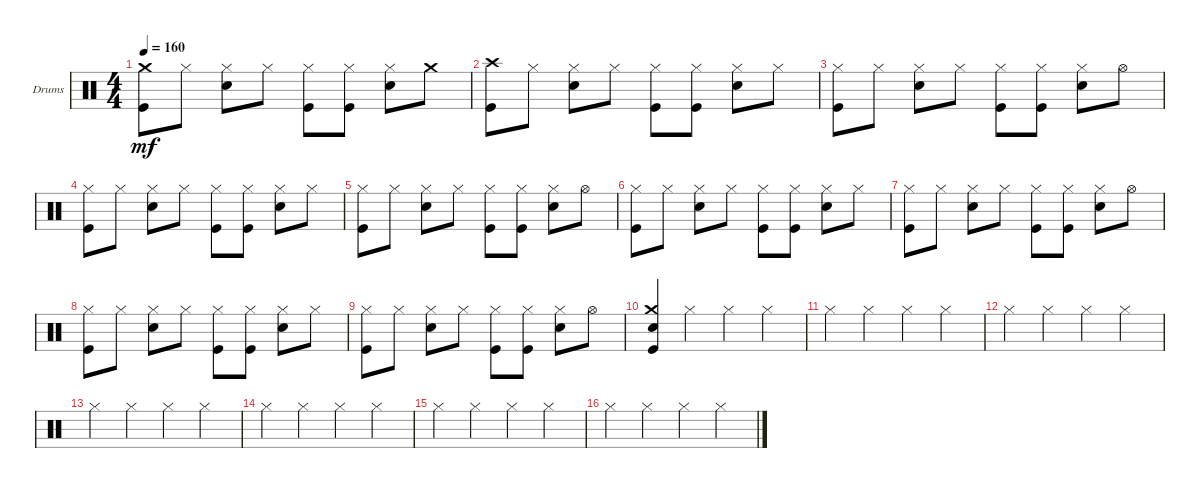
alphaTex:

\defaultSystemsLayout 4
\bracketExtendMode groupsimilarinstruments
\firstSystemTrackNameOrientation horizontal
\otherSystemsTrackNameOrientation horizontal
\track ("Drumkit" "Drums") {instrument percussion}
\staff {score}
\articulation defaults
\ts (4 4)
\tempo 160
\clef neutral
\ks c
("Kick (hit)" "Crash medium (hit)").8{dy mf} "Hi-Hat (closed)".8 ("Snare (hit) 2" "Hi-Hat (closed)").8 "Hi-Hat (closed)".8 ("Hi-Hat (closed)" "Kick (hit)").8 ("Kick (hit)" "Hi-Hat (closed)").8 ("Snare (hit) 2" "Hi-Hat (closed)").8 "Crash medium (hit)".8 |
("Kick (hit)" "Crash high (hit)").8 "Hi-Hat (closed)".8 ("Snare (hit) 2" "Hi-Hat (closed)").8 "Hi-Hat (closed)".8 ("Hi-Hat (closed)" "Kick (hit)").8 ("Kick (hit)" "Hi-Hat (closed)").8 ("Snare (hit) 2" "Hi-Hat (closed)").8 "Hi-Hat (closed)".8 |
("Kick (hit)" "Hi-Hat (closed)").8 "Hi-Hat (closed)".8 ("Snare (hit) 2" "Hi-Hat (closed)").8 "Hi-Hat (closed)".8 ("Hi-Hat (closed)" "Kick (hit)").8 ("Kick (hit)" "Hi-Hat (closed)").8 ("Snare (hit) 2" "Hi-Hat (closed)").8 "Hi-Hat (open)".8 |
("Kick (hit)" "Hi-Hat (closed)").8 "Hi-Hat (closed)".8 ("Snare (hit) 2" "Hi-Hat (closed)").8 "Hi-Hat (closed)".8 ("Hi-Hat (closed)" "Kick (hit)").8 ("Kick (hit)" "Hi-Hat (closed)").8 ("Snare (hit) 2" "Hi-Hat (closed)").8 "Hi-Hat (closed)".8 |
("Kick (hit)" "Hi-Hat (closed)").8 "Hi-Hat (closed)".8 ("Snare (hit) 2" "Hi-Hat (closed)").8 "Hi-Hat (closed)".8 ("Hi-Hat (closed)" "Kick (hit)").8 ("Kick (hit)" "Hi-Hat (closed)").8 ("Snare (hit) 2" "Hi-Hat (closed)").8 "Hi-Hat (open)".8 |
("Kick (hit)" "Hi-Hat (closed)").8 "Hi-Hat (closed)".8 ("Snare (hit) 2" "Hi-Hat (closed)").8 "Hi-Hat (closed)".8 ("Hi-Hat (closed)" "Kick (hit)").8 ("Kick (hit)" "Hi-Hat (closed)").8 ("Snare (hit) 2" "Hi-Hat (closed)").8 "Hi-Hat (closed)".8 |
("Kick (hit)" "Hi-Hat (closed)").8 "Hi-Hat (closed)".8 ("Snare (hit) 2" "Hi-Hat (closed)").8 "Hi-Hat (closed)".8 ("Hi-Hat (closed)" "Kick (hit)").8 ("Kick (hit)" "Hi-Hat (closed)").8 ("Snare (hit) 2" "Hi-Hat (closed)").8 "Hi-Hat (open)".8 |
("Kick (hit)" "Hi-Hat (closed)").8 "Hi-Hat (closed)".8 ("Snare (hit) 2" "Hi-Hat (closed)").8 "Hi-Hat (closed)".8 ("Hi-Hat (closed)" "Kick (hit)").8 ("Kick (hit)" "Hi-Hat (closed)").8 ("Snare (hit) 2" "Hi-Hat (closed)").8 "Hi-Hat (closed)".8 |
("Kick (hit)" "Hi-Hat (closed)").8 "Hi-Hat (closed)".8 ("Snare (hit) 2" "Hi-Hat (closed)").8 "Hi-Hat (closed)".8 ("Hi-Hat (closed)" "Kick (hit)").8 ("Kick (hit)" "Hi-Hat (closed)").8 ("Snare (hit) 2" "Hi-Hat (closed)").8 "Hi-Hat (open)".8 |
("Crash medium (hit)" "Kick (hit)" "Snare (hit) 2").4 "Hi-Hat (closed)".4 "Hi-Hat (closed)".4 "Hi-Hat (closed)".4 |
"Hi-Hat (closed)".4 "Hi-Hat (closed)".4 "Hi-Hat (closed)".4 "Hi-Hat (closed)".4 |
"Hi-Hat (closed)".4 "Hi-Hat (closed)".4 "Hi-Hat (closed)".4 "Hi-Hat (closed)".4 |
"Hi-Hat (closed)".4 "Hi-Hat (closed)".4 "Hi-Hat (closed)".4 "Hi-Hat (closed)".4 |
"Hi-Hat (closed)".4 "Hi-Hat (closed)".4 "Hi-Hat (closed)".4 "Hi-Hat (closed)".4 |
"Hi-Hat (closed)".4 "Hi-Hat (closed)".4 "Hi-Hat (closed)".4 "Hi-Hat (closed)".4 |
"Hi-Hat (closed)".4 "Hi-Hat (closed)".4 "Hi-Hat (closed)".4 "Hi-Hat (closed)".4
